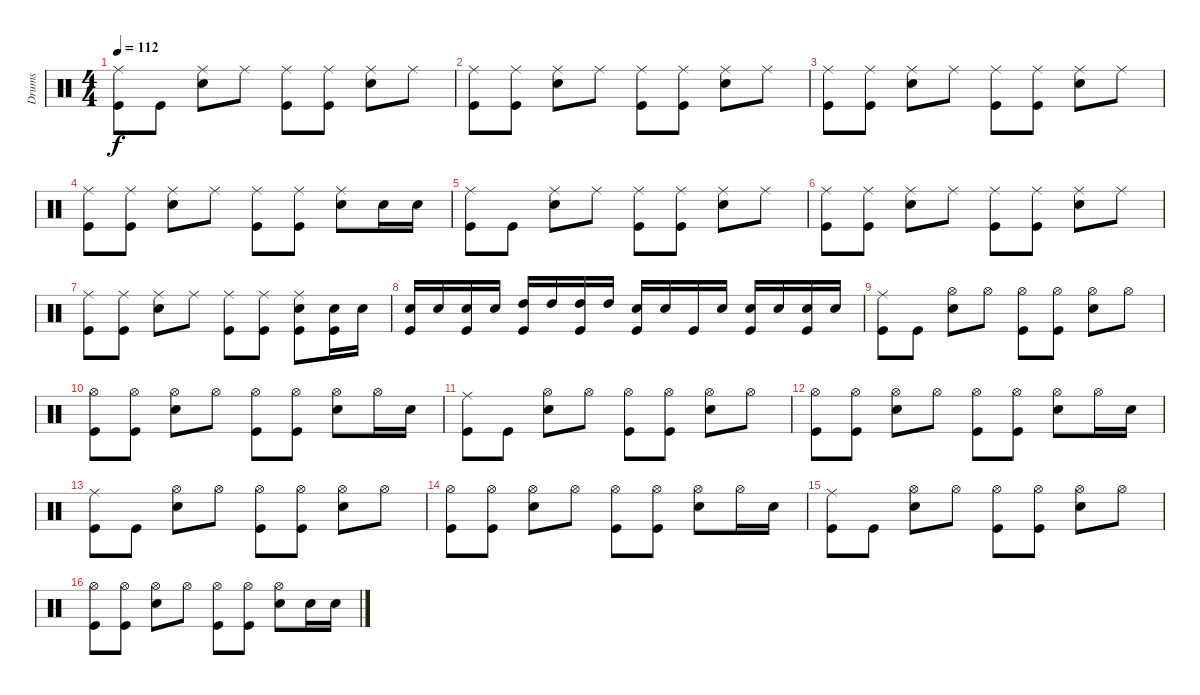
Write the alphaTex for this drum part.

\track ("Drums" "Drums") {instrument percussion}
\staff {score}
\articulation defaults
\ts (4 4)
\tempo 112
\clef neutral
\ks c
("Ride (middle)" "Kick (hit)").8{dy f} "Kick (hit)".8 ("Ride (middle)" "Snare (hit) 2").8 "Ride (middle)".8 ("Ride (middle)" "Kick (hit)").8 ("Ride (middle)" "Kick (hit)").8 ("Ride (middle)" "Snare (hit) 2").8 "Ride (middle)".8 |
("Ride (middle)" "Kick (hit)").8 ("Ride (middle)" "Kick (hit)").8 ("Ride (middle)" "Snare (hit) 2").8 "Ride (middle)".8 ("Ride (middle)" "Kick (hit)").8 ("Ride (middle)" "Kick (hit)").8 ("Ride (middle)" "Snare (hit) 2").8 "Ride (middle)".8 |
("Ride (middle)" "Kick (hit)").8 ("Ride (middle)" "Kick (hit)").8 ("Ride (middle)" "Snare (hit) 2").8 "Ride (middle)".8 ("Ride (middle)" "Kick (hit)").8 ("Ride (middle)" "Kick (hit)").8 ("Ride (middle)" "Snare (hit) 2").8 "Ride (middle)".8 |
("Ride (middle)" "Kick (hit)").8 ("Ride (middle)" "Kick (hit)").8 ("Ride (middle)" "Snare (hit) 2").8 "Ride (middle)".8 ("Ride (middle)" "Kick (hit)").8 ("Ride (middle)" "Kick (hit)").8 ("Ride (middle)" "Snare (hit) 2").8 "Snare (hit) 2".16 "Snare (hit) 2".16 |
("Ride (middle)" "Kick (hit)").8 "Kick (hit)".8 ("Ride (middle)" "Snare (hit) 2").8 "Ride (middle)".8 ("Ride (middle)" "Kick (hit)").8 ("Ride (middle)" "Kick (hit)").8 ("Ride (middle)" "Snare (hit) 2").8 "Ride (middle)".8 |
("Ride (middle)" "Kick (hit)").8 ("Ride (middle)" "Kick (hit)").8 ("Ride (middle)" "Snare (hit) 2").8 "Ride (middle)".8 ("Ride (middle)" "Kick (hit)").8 ("Ride (middle)" "Kick (hit)").8 ("Ride (middle)" "Snare (hit) 2").8 "Ride (middle)".8 |
("Ride (middle)" "Kick (hit)").8 ("Ride (middle)" "Kick (hit)").8 ("Ride (middle)" "Snare (hit) 2").8 "Ride (middle)".8 ("Ride (middle)" "Kick (hit)").8 ("Ride (middle)" "Kick (hit)").8 ("Ride (middle)" "Snare (hit) 2" "Kick (hit)").8 ("Snare (hit) 2" "Kick (hit)").16 "Snare (hit) 2".16 |
("Snare (hit) 2" "Kick (hit)").16 "Snare (hit) 2".16 ("Snare (hit) 2" "Kick (hit)").16 "Snare (hit) 2".16 ("High Tom (hit)" "Kick (hit)").16 "High Tom (hit)".16 ("High Tom (hit)" "Kick (hit)").16 "High Tom (hit)".16 ("Snare (hit) 2" "Kick (hit)").16 "Snare (hit) 2".16 "Kick (hit)".16 "Snare (hit) 2".16 ("Snare (hit) 2" "Kick (hit)").16 "Snare (hit) 2".16 ("Snare (hit) 2" "Kick (hit)").16 "Snare (hit) 2".16 |
("Ride (middle)" "Kick (hit)").8 "Kick (hit)".8 ("Hi-Hat (open)" "Snare (hit) 2").8 "Hi-Hat (open)".8 ("Hi-Hat (open)" "Kick (hit)").8 ("Hi-Hat (open)" "Kick (hit)").8 ("Hi-Hat (open)" "Snare (hit) 2").8 "Hi-Hat (open)".8 |
("Hi-Hat (open)" "Kick (hit)").8 ("Hi-Hat (open)" "Kick (hit)").8 ("Hi-Hat (open)" "Snare (hit) 2").8 "Hi-Hat (open)".8 ("Hi-Hat (open)" "Kick (hit)").8 ("Hi-Hat (open)" "Kick (hit)").8 ("Hi-Hat (open)" "Snare (hit) 2").8 "Hi-Hat (open)".16 "Snare (hit) 2".16 |
("Ride (middle)" "Kick (hit)").8 "Kick (hit)".8 ("Hi-Hat (open)" "Snare (hit) 2").8 "Hi-Hat (open)".8 ("Hi-Hat (open)" "Kick (hit)").8 ("Hi-Hat (open)" "Kick (hit)").8 ("Hi-Hat (open)" "Snare (hit) 2").8 "Hi-Hat (open)".8 |
("Hi-Hat (open)" "Kick (hit)").8 ("Hi-Hat (open)" "Kick (hit)").8 ("Hi-Hat (open)" "Snare (hit) 2").8 "Hi-Hat (open)".8 ("Hi-Hat (open)" "Kick (hit)").8 ("Hi-Hat (open)" "Kick (hit)").8 ("Hi-Hat (open)" "Snare (hit) 2").8 "Hi-Hat (open)".16 "Snare (hit) 2".16 |
("Ride (middle)" "Kick (hit)").8 "Kick (hit)".8 ("Hi-Hat (open)" "Snare (hit) 2").8 "Hi-Hat (open)".8 ("Hi-Hat (open)" "Kick (hit)").8 ("Hi-Hat (open)" "Kick (hit)").8 ("Hi-Hat (open)" "Snare (hit) 2").8 "Hi-Hat (open)".8 |
("Hi-Hat (open)" "Kick (hit)").8 ("Hi-Hat (open)" "Kick (hit)").8 ("Hi-Hat (open)" "Snare (hit) 2").8 "Hi-Hat (open)".8 ("Hi-Hat (open)" "Kick (hit)").8 ("Hi-Hat (open)" "Kick (hit)").8 ("Hi-Hat (open)" "Snare (hit) 2").8 "Hi-Hat (open)".16 "Snare (hit) 2".16 |
("Ride (middle)" "Kick (hit)").8 "Kick (hit)".8 ("Hi-Hat (open)" "Snare (hit) 2").8 "Hi-Hat (open)".8 ("Hi-Hat (open)" "Kick (hit)").8 ("Hi-Hat (open)" "Kick (hit)").8 ("Hi-Hat (open)" "Snare (hit) 2").8 "Hi-Hat (open)".8 |
("Hi-Hat (open)" "Kick (hit)").8 ("Hi-Hat (open)" "Kick (hit)").8 ("Hi-Hat (open)" "Snare (hit) 2").8 "Hi-Hat (open)".8 ("Hi-Hat (open)" "Kick (hit)").8 ("Hi-Hat (open)" "Kick (hit)").8 ("Hi-Hat (open)" "Snare (hit) 2").8 "Snare (hit) 2".16 "Snare (hit) 2".16
